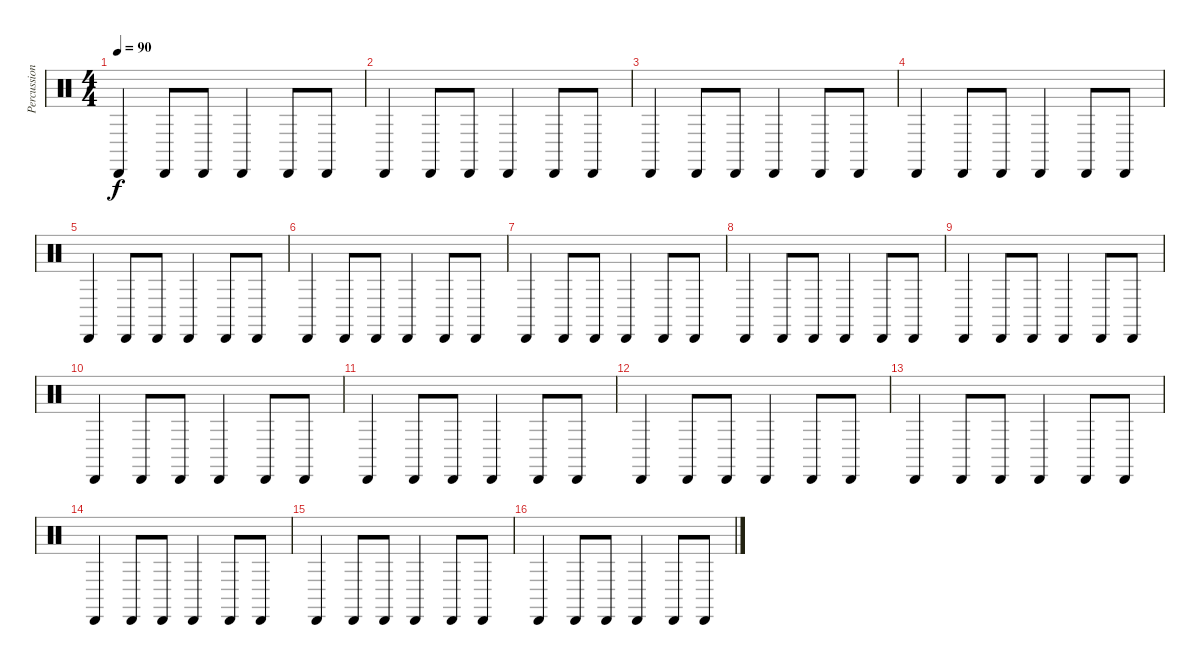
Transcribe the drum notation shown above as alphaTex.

\track ("Percussions" "Percussion") {instrument percussion}
\staff {score}
\articulation defaults
\ts (4 4)
\tempo 90
\clef neutral
\ks c "Cabasa (hit)".4{dy f} "Cabasa (hit)".8 "Cabasa (hit)".8 "Cabasa (hit)".4 "Cabasa (hit)".8 "Cabasa (hit)".8
|
"Cabasa (hit)".4 "Cabasa (hit)".8 "Cabasa (hit)".8 "Cabasa (hit)".4 "Cabasa (hit)".8 "Cabasa (hit)".8 |
"Cabasa (hit)".4 "Cabasa (hit)".8 "Cabasa (hit)".8 "Cabasa (hit)".4 "Cabasa (hit)".8 "Cabasa (hit)".8 |
"Cabasa (hit)".4 "Cabasa (hit)".8 "Cabasa (hit)".8 "Cabasa (hit)".4 "Cabasa (hit)".8 "Cabasa (hit)".8 |
"Cabasa (hit)".4 "Cabasa (hit)".8 "Cabasa (hit)".8 "Cabasa (hit)".4 "Cabasa (hit)".8 "Cabasa (hit)".8 |
"Cabasa (hit)".4 "Cabasa (hit)".8 "Cabasa (hit)".8 "Cabasa (hit)".4 "Cabasa (hit)".8 "Cabasa (hit)".8 |
"Cabasa (hit)".4 "Cabasa (hit)".8 "Cabasa (hit)".8 "Cabasa (hit)".4 "Cabasa (hit)".8 "Cabasa (hit)".8 |
"Cabasa (hit)".4 "Cabasa (hit)".8 "Cabasa (hit)".8 "Cabasa (hit)".4 "Cabasa (hit)".8 "Cabasa (hit)".8 |
"Cabasa (hit)".4 "Cabasa (hit)".8 "Cabasa (hit)".8 "Cabasa (hit)".4 "Cabasa (hit)".8 "Cabasa (hit)".8 |
"Cabasa (hit)".4 "Cabasa (hit)".8 "Cabasa (hit)".8 "Cabasa (hit)".4 "Cabasa (hit)".8 "Cabasa (hit)".8 |
"Cabasa (hit)".4 "Cabasa (hit)".8 "Cabasa (hit)".8 "Cabasa (hit)".4 "Cabasa (hit)".8 "Cabasa (hit)".8 |
"Cabasa (hit)".4 "Cabasa (hit)".8 "Cabasa (hit)".8 "Cabasa (hit)".4 "Cabasa (hit)".8 "Cabasa (hit)".8 |
"Cabasa (hit)".4 "Cabasa (hit)".8 "Cabasa (hit)".8 "Cabasa (hit)".4 "Cabasa (hit)".8 "Cabasa (hit)".8 |
"Cabasa (hit)".4 "Cabasa (hit)".8 "Cabasa (hit)".8 "Cabasa (hit)".4 "Cabasa (hit)".8 "Cabasa (hit)".8 |
"Cabasa (hit)".4 "Cabasa (hit)".8 "Cabasa (hit)".8 "Cabasa (hit)".4 "Cabasa (hit)".8 "Cabasa (hit)".8 |
"Cabasa (hit)".4 "Cabasa (hit)".8 "Cabasa (hit)".8 "Cabasa (hit)".4 "Cabasa (hit)".8 "Cabasa (hit)".8
